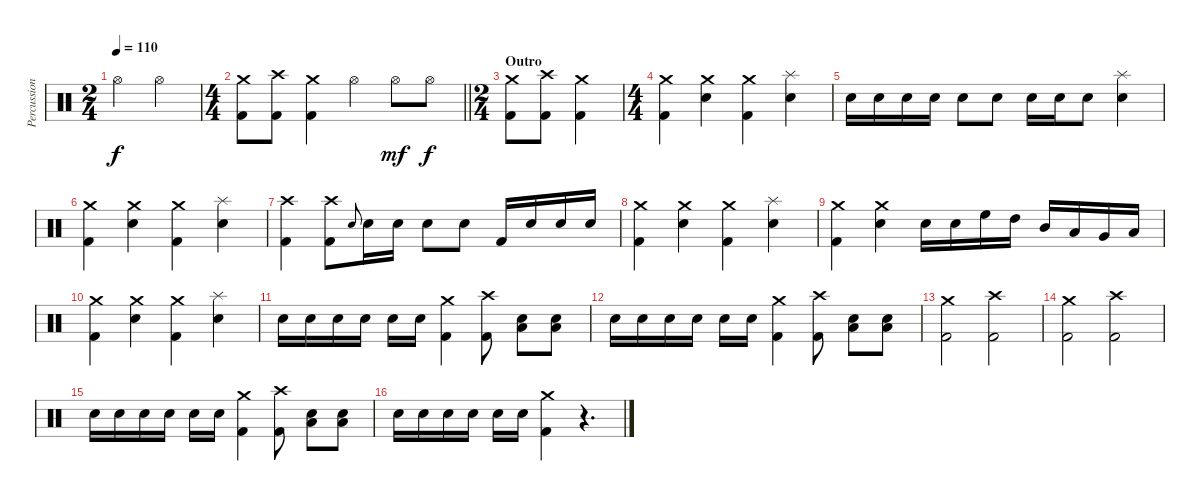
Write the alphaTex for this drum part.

\track ("Percussion" "Percussion") {instrument percussion}
\staff {score}
\articulation defaults
\ts (2 4)
\tempo 110
\clef neutral
\ks c "Hi-Hat (open)".4{dy f} "Hi-Hat (open)".4
|
\ts (4 4)
\barLineRight lightlight
("Crash medium (hit)" "Kick (hit) 2").8 ("Crash high (hit)" "Kick (hit) 2").8 ("Crash medium (hit)" "Kick (hit) 2").4 "Hi-Hat (open)".4 "Hi-Hat (open)".8{dy mf} "Hi-Hat (open)".8{dy f} |
\ts (2 4)
\section ("" "Outro")
("Crash medium (hit)" "Kick (hit) 2").8 ("Crash high (hit)" "Kick (hit) 2").8 ("Crash medium (hit)" "Kick (hit) 2").4 |
\ts (4 4)
("Crash medium (hit)" "Kick (hit) 2").4 ("Crash medium (hit)" "Electric Snare (hit)").4 ("Crash medium (hit)" "Kick (hit) 2").4 ("Splash (hit)" "Electric Snare (hit)").4 |
"Electric Snare (hit)".16 "Electric Snare (hit)".16 "Electric Snare (hit)".16 "Electric Snare (hit)".16 "Electric Snare (hit)".8 "Electric Snare (hit)".8 "Electric Snare (hit)".16 "Electric Snare (hit)".16 "Electric Snare (hit)".8 ("Splash (hit)" "Electric Snare (hit)").4 |
("Crash medium (hit)" "Kick (hit) 2").4 ("Crash medium (hit)" "Electric Snare (hit)").4 ("Crash medium (hit)" "Kick (hit) 2").4 ("Splash (hit)" "Electric Snare (hit)").4 |
("Crash high (hit)" "Kick (hit) 2").4 ("Crash high (hit)" "Kick (hit) 2").8 "Electric Snare (hit)".8{gr onbeat} "Electric Snare (hit)".16 "Electric Snare (hit)".16 "Electric Snare (hit)".8 "Electric Snare (hit)".8 "Kick (hit) 2".16 "Electric Snare (hit)".16 "Electric Snare (hit)".16 "Electric Snare (hit)".16 |
("Crash medium (hit)" "Kick (hit) 2").4 ("Crash medium (hit)" "Electric Snare (hit)").4 ("Crash medium (hit)" "Kick (hit) 2").4 ("Splash (hit)" "Electric Snare (hit)").4 |
("Crash medium (hit)" "Kick (hit) 2").4 ("Crash medium (hit)" "Electric Snare (hit)").4 "Electric Snare (hit)".16 "Electric Snare (hit)".16 "High Floor Tom (hit)".16 "High Tom (hit)".16 "Mid Tom (hit)".16 "Low Tom (hit)".16 "Very Low Tom (hit)".16 "Low Floor Tom (hit)".16 |
("Crash medium (hit)" "Kick (hit) 2").4 ("Crash medium (hit)" "Electric Snare (hit)").4 ("Crash medium (hit)" "Kick (hit) 2").4 ("Splash (hit)" "Electric Snare (hit)").4 |
"Electric Snare (hit)".16 "Electric Snare (hit)".16 "Electric Snare (hit)".16 "Electric Snare (hit)".16 "Electric Snare (hit)".16 "Electric Snare (hit)".16 ("Crash medium (hit)" "Kick (hit) 2").4 ("Crash high (hit)" "Kick (hit) 2").8 ("Electric Snare (hit)" "Low Tom (hit)").8 ("Electric Snare (hit)" "Low Tom (hit)").8 |
"Electric Snare (hit)".16 "Electric Snare (hit)".16 "Electric Snare (hit)".16 "Electric Snare (hit)".16 "Electric Snare (hit)".16 "Electric Snare (hit)".16 ("Crash medium (hit)" "Kick (hit) 2").4 ("Crash high (hit)" "Kick (hit) 2").8 ("Electric Snare (hit)" "Low Tom (hit)").8 ("Electric Snare (hit)" "Low Tom (hit)").8 |
("Crash medium (hit)" "Kick (hit) 2").2 ("Crash high (hit)" "Kick (hit) 2").2 |
("Crash medium (hit)" "Kick (hit) 2").2 ("Crash high (hit)" "Kick (hit) 2").2 |
"Electric Snare (hit)".16 "Electric Snare (hit)".16 "Electric Snare (hit)".16 "Electric Snare (hit)".16 "Electric Snare (hit)".16 "Electric Snare (hit)".16 ("Crash medium (hit)" "Kick (hit) 2").4 ("Crash high (hit)" "Kick (hit) 2").8 ("Electric Snare (hit)" "Low Tom (hit)").8 ("Electric Snare (hit)" "Low Tom (hit)").8 |
"Electric Snare (hit)".16 "Electric Snare (hit)".16 "Electric Snare (hit)".16 "Electric Snare (hit)".16 "Electric Snare (hit)".16 "Electric Snare (hit)".16 ("Crash medium (hit)" "Kick (hit) 2").4 r.4{d}
